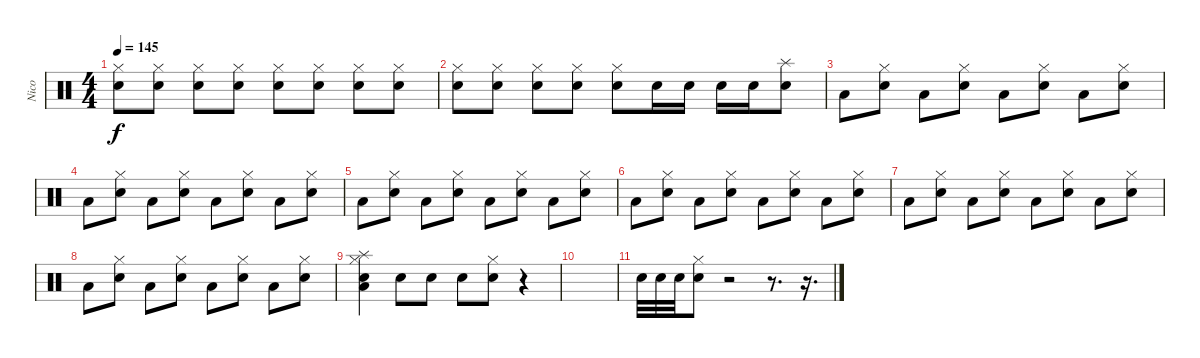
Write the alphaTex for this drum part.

\track ("Nico" "Nico") {instrument percussion}
\staff {score}
\articulation defaults
\ts (4 4)
\tempo 145
\clef neutral
\ks c
("Snare (hit) 2" "Hi-Hat (closed)").8{dy f} ("Snare (hit) 2" "Hi-Hat (closed)").8 ("Snare (hit) 2" "Hi-Hat (closed)").8 ("Snare (hit) 2" "Hi-Hat (closed)").8 ("Snare (hit) 2" "Hi-Hat (closed)").8 ("Snare (hit) 2" "Hi-Hat (closed)").8 ("Snare (hit) 2" "Hi-Hat (closed)").8 ("Snare (hit) 2" "Hi-Hat (closed)").8 |
("Snare (hit) 2" "Hi-Hat (closed)").8 ("Snare (hit) 2" "Hi-Hat (closed)").8 ("Snare (hit) 2" "Hi-Hat (closed)").8 ("Snare (hit) 2" "Hi-Hat (closed)").8 ("Snare (hit) 2" "Hi-Hat (closed)").8 "Snare (hit) 2".16 "Snare (hit) 2".16 "Snare (hit) 2".16 "Snare (hit) 2".16 ("Snare (hit) 2" "Splash (hit)").8 |
"Low Floor Tom (hit)".8 ("Snare (hit) 2" "Hi-Hat (closed)").8 "Low Floor Tom (hit)".8 ("Snare (hit) 2" "Hi-Hat (closed)").8 "Low Floor Tom (hit)".8 ("Snare (hit) 2" "Hi-Hat (closed)").8 "Low Floor Tom (hit)".8 ("Snare (hit) 2" "Hi-Hat (closed)").8 |
"Low Floor Tom (hit)".8 ("Snare (hit) 2" "Hi-Hat (closed)").8 "Low Floor Tom (hit)".8 ("Snare (hit) 2" "Hi-Hat (closed)").8 "Low Floor Tom (hit)".8 ("Snare (hit) 2" "Hi-Hat (closed)").8 "Low Floor Tom (hit)".8 ("Snare (hit) 2" "Hi-Hat (closed)").8 |
"Low Floor Tom (hit)".8 ("Snare (hit) 2" "Hi-Hat (closed)").8 "Low Floor Tom (hit)".8 ("Snare (hit) 2" "Hi-Hat (closed)").8 "Low Floor Tom (hit)".8 ("Snare (hit) 2" "Hi-Hat (closed)").8 "Low Floor Tom (hit)".8 ("Snare (hit) 2" "Hi-Hat (closed)").8 |
"Low Floor Tom (hit)".8 ("Snare (hit) 2" "Hi-Hat (closed)").8 "Low Floor Tom (hit)".8 ("Snare (hit) 2" "Hi-Hat (closed)").8 "Low Floor Tom (hit)".8 ("Snare (hit) 2" "Hi-Hat (closed)").8 "Low Floor Tom (hit)".8 ("Snare (hit) 2" "Hi-Hat (closed)").8 |
"Low Floor Tom (hit)".8 ("Snare (hit) 2" "Hi-Hat (closed)").8 "Low Floor Tom (hit)".8 ("Snare (hit) 2" "Hi-Hat (closed)").8 "Low Floor Tom (hit)".8 ("Snare (hit) 2" "Hi-Hat (closed)").8 "Low Floor Tom (hit)".8 ("Snare (hit) 2" "Hi-Hat (closed)").8 |
"Low Floor Tom (hit)".8 ("Snare (hit) 2" "Hi-Hat (closed)").8 "Low Floor Tom (hit)".8 ("Snare (hit) 2" "Hi-Hat (closed)").8 "Low Floor Tom (hit)".8 ("Snare (hit) 2" "Hi-Hat (closed)").8 "Low Floor Tom (hit)".8 ("Snare (hit) 2" "Hi-Hat (closed)").8 |
("Low Floor Tom (hit)" "Snare (hit) 2" "Hi-Hat (closed)" "Splash (hit)").4 "Snare (hit) 2".8 "Snare (hit) 2".8 "Snare (hit) 2".8 ("Snare (hit) 2" "Hi-Hat (closed)").8 r.4 |
|
"Snare (hit) 2".32 "Snare (hit) 2".32 "Snare (hit) 2".32 ("Snare (hit) 2" "Hi-Hat (closed)").8 r.2 r.8{d} r.16{d}
